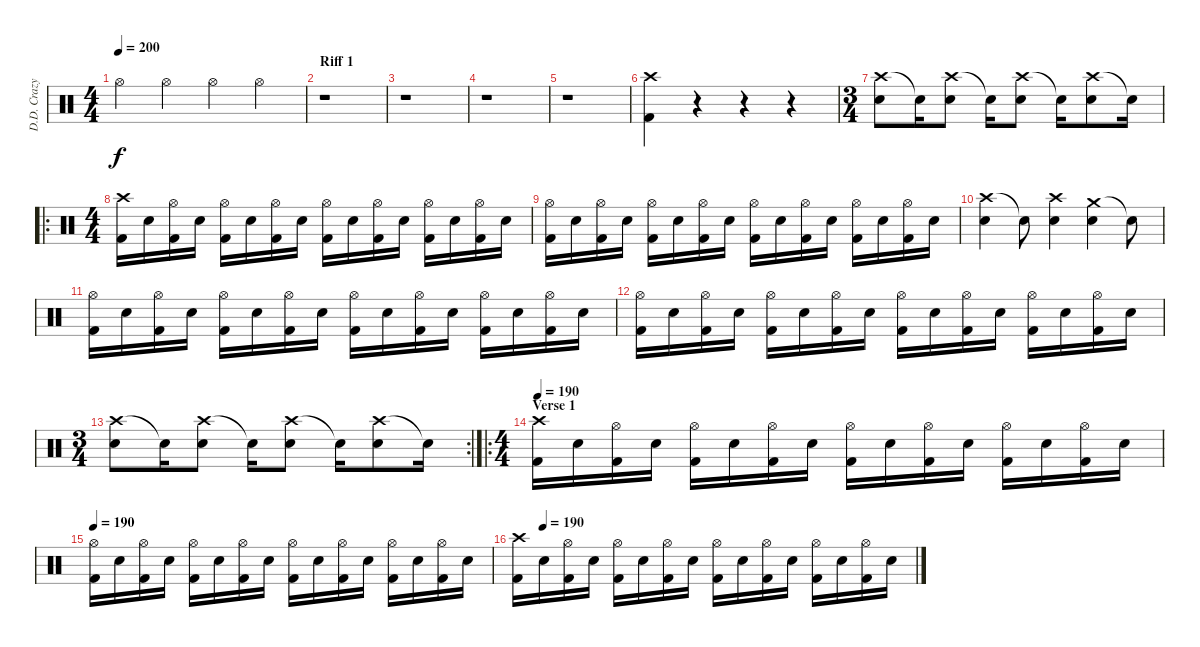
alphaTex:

\track ("D.D. Crazy" "D.D. Crazy") {instrument percussion}
\staff {score}
\articulation defaults
\ts (4 4)
\tempo 200
\clef neutral
\ks c "Hi-Hat (open)".4{dy f} "Hi-Hat (open)".4 "Hi-Hat (open)".4 "Hi-Hat (open)".4
|
\section ("" "Riff 1")
r.1 |
r.1 |
r.1 |
r.1 |
("Crash high (hit)" "Kick (hit) 2").4 r.4 r.4 r.4 |
\ts (3 4)
("Crash high (hit)" "Snare (hit) 2").8 "Snare (hit)"{t}.16 ("Crash high (hit)" "Snare (hit) 2").8 "Snare (hit)"{t}.16 ("Crash high (hit)" "Snare (hit) 2").8 "Snare (hit)"{t}.16 ("Crash high (hit)" "Snare (hit) 2").8 "Snare (hit)"{t}.16 |
\ro
\ts (4 4)
("Crash high (hit)" "Kick (hit) 2").16 "Snare (hit) 2".16 ("Hi-Hat (open)" "Kick (hit) 2").16 "Snare (hit) 2".16 ("Hi-Hat (open)" "Kick (hit) 2").16 "Snare (hit) 2".16 ("Hi-Hat (open)" "Kick (hit) 2").16 "Snare (hit) 2".16 ("Hi-Hat (open)" "Kick (hit) 2").16 "Snare (hit) 2".16 ("Hi-Hat (open)" "Kick (hit) 2").16 "Snare (hit) 2".16 ("Hi-Hat (open)" "Kick (hit) 2").16 "Snare (hit) 2".16 ("Hi-Hat (open)" "Kick (hit) 2").16 "Snare (hit) 2".16 |
("Hi-Hat (open)" "Kick (hit) 2").16 "Snare (hit) 2".16 ("Hi-Hat (open)" "Kick (hit) 2").16 "Snare (hit) 2".16 ("Hi-Hat (open)" "Kick (hit) 2").16 "Snare (hit) 2".16 ("Hi-Hat (open)" "Kick (hit) 2").16 "Snare (hit) 2".16 ("Hi-Hat (open)" "Kick (hit) 2").16 "Snare (hit) 2".16 ("Hi-Hat (open)" "Kick (hit) 2").16 "Snare (hit) 2".16 ("Hi-Hat (open)" "Kick (hit) 2").16 "Snare (hit) 2".16 ("Hi-Hat (open)" "Kick (hit) 2").16 "Snare (hit) 2".16 |
("Crash high (hit)" "Snare (hit) 2").4 "Snare (hit)"{t}.8 ("Crash high (hit)" "Snare (hit) 2").4 ("Crash medium (hit)" "Snare (hit) 2").4 "Snare (hit)"{t}.8 |
("Hi-Hat (open)" "Kick (hit) 2").16 "Snare (hit) 2".16 ("Hi-Hat (open)" "Kick (hit) 2").16 "Snare (hit) 2".16 ("Hi-Hat (open)" "Kick (hit) 2").16 "Snare (hit) 2".16 ("Hi-Hat (open)" "Kick (hit) 2").16 "Snare (hit) 2".16 ("Hi-Hat (open)" "Kick (hit) 2").16 "Snare (hit) 2".16 ("Hi-Hat (open)" "Kick (hit) 2").16 "Snare (hit) 2".16 ("Hi-Hat (open)" "Kick (hit) 2").16 "Snare (hit) 2".16 ("Hi-Hat (open)" "Kick (hit) 2").16 "Snare (hit) 2".16 |
("Hi-Hat (open)" "Kick (hit) 2").16 "Snare (hit) 2".16 ("Hi-Hat (open)" "Kick (hit) 2").16 "Snare (hit) 2".16 ("Hi-Hat (open)" "Kick (hit) 2").16 "Snare (hit) 2".16 ("Hi-Hat (open)" "Kick (hit) 2").16 "Snare (hit) 2".16 ("Hi-Hat (open)" "Kick (hit) 2").16 "Snare (hit) 2".16 ("Hi-Hat (open)" "Kick (hit) 2").16 "Snare (hit) 2".16 ("Hi-Hat (open)" "Kick (hit) 2").16 "Snare (hit) 2".16 ("Hi-Hat (open)" "Kick (hit) 2").16 "Snare (hit) 2".16 |
\rc 2
\ts (3 4)
("Crash high (hit)" "Snare (hit) 2").8 "Snare (hit)"{t}.16 ("Crash high (hit)" "Snare (hit) 2").8 "Snare (hit)"{t}.16 ("Crash high (hit)" "Snare (hit) 2").8 "Snare (hit)"{t}.16 ("Crash high (hit)" "Snare (hit) 2").8 "Snare (hit)"{t}.16 |
\ro
\ts (4 4)
\section ("" "Verse 1")
\tempo 190
("Crash high (hit)" "Kick (hit) 2").16 "Snare (hit) 2".16 ("Hi-Hat (open)" "Kick (hit) 2").16 "Snare (hit) 2".16 ("Hi-Hat (open)" "Kick (hit) 2").16 "Snare (hit) 2".16 ("Hi-Hat (open)" "Kick (hit) 2").16 "Snare (hit) 2".16 ("Hi-Hat (open)" "Kick (hit) 2").16 "Snare (hit) 2".16 ("Hi-Hat (open)" "Kick (hit) 2").16 "Snare (hit) 2".16 ("Hi-Hat (open)" "Kick (hit) 2").16 "Snare (hit) 2".16 ("Hi-Hat (open)" "Kick (hit) 2").16 "Snare (hit) 2".16 |
\tempo 190
("Hi-Hat (open)" "Kick (hit) 2").16 "Snare (hit) 2".16 ("Hi-Hat (open)" "Kick (hit) 2").16 "Snare (hit) 2".16 ("Hi-Hat (open)" "Kick (hit) 2").16 "Snare (hit) 2".16 ("Hi-Hat (open)" "Kick (hit) 2").16 "Snare (hit) 2".16 ("Hi-Hat (open)" "Kick (hit) 2").16 "Snare (hit) 2".16 ("Hi-Hat (open)" "Kick (hit) 2").16 "Snare (hit) 2".16 ("Hi-Hat (open)" "Kick (hit) 2").16 "Snare (hit) 2".16 ("Hi-Hat (open)" "Kick (hit) 2").16 "Snare (hit) 2".16 |
\tempo (190 0.0625)
("Crash high (hit)" "Kick (hit) 2").16 "Snare (hit) 2".16 ("Hi-Hat (open)" "Kick (hit) 2").16 "Snare (hit) 2".16 ("Hi-Hat (open)" "Kick (hit) 2").16 "Snare (hit) 2".16 ("Hi-Hat (open)" "Kick (hit) 2").16 "Snare (hit) 2".16 ("Hi-Hat (open)" "Kick (hit) 2").16 "Snare (hit) 2".16 ("Hi-Hat (open)" "Kick (hit) 2").16 "Snare (hit) 2".16 ("Hi-Hat (open)" "Kick (hit) 2").16 "Snare (hit) 2".16 ("Hi-Hat (open)" "Kick (hit) 2").16 "Snare (hit) 2".16
